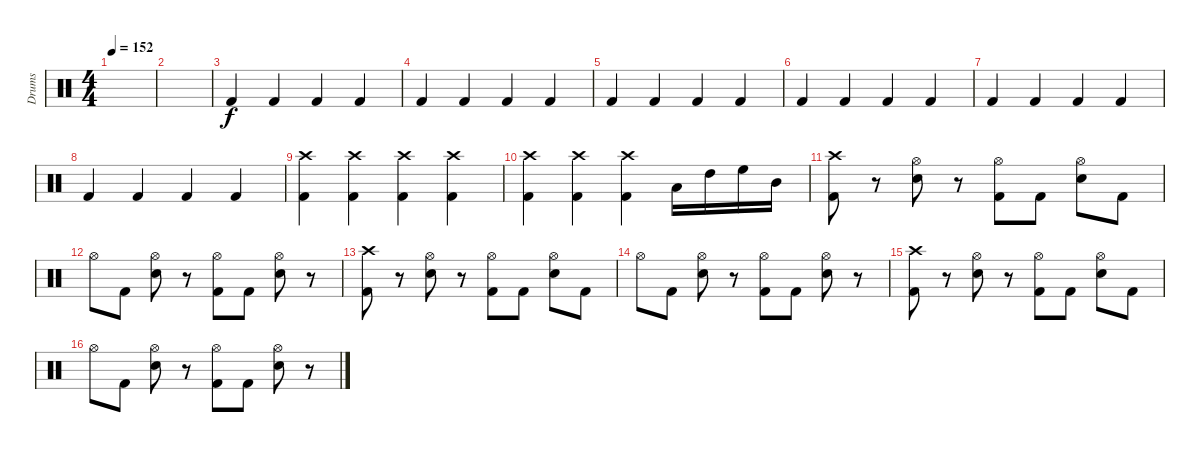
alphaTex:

\track ("Drums" "Drums") {instrument percussion}
\staff {score}
\articulation defaults
\ts (4 4)
\tempo 152
\clef neutral
\ks c
|
|
"Kick (hit) 2".4 "Kick (hit) 2".4 "Kick (hit) 2".4 "Kick (hit) 2".4 |
"Kick (hit) 2".4 "Kick (hit) 2".4 "Kick (hit) 2".4 "Kick (hit) 2".4 |
"Kick (hit) 2".4 "Kick (hit) 2".4 "Kick (hit) 2".4 "Kick (hit) 2".4 |
"Kick (hit) 2".4 "Kick (hit) 2".4 "Kick (hit) 2".4 "Kick (hit) 2".4 |
"Kick (hit) 2".4 "Kick (hit) 2".4 "Kick (hit) 2".4 "Kick (hit) 2".4 |
"Kick (hit) 2".4 "Kick (hit) 2".4 "Kick (hit) 2".4 "Kick (hit) 2".4 |
("Crash high (hit)" "Kick (hit) 2").4 ("Crash high (hit)" "Kick (hit) 2").4 ("Crash high (hit)" "Kick (hit) 2").4 ("Crash high (hit)" "Kick (hit) 2").4 |
("Crash high (hit)" "Kick (hit) 2").4 ("Crash high (hit)" "Kick (hit) 2").4 ("Crash high (hit)" "Kick (hit) 2").4 "Low Tom (hit)".16 "High Tom (hit)".16 "High Floor Tom (hit)".16 "Mid Tom (hit)".16 |
("Crash high (hit)" "Kick (hit) 2").8 r.8 ("Hi-Hat (open)" "Snare (hit) 2").8 r.8 ("Hi-Hat (open)" "Kick (hit) 2").8 "Kick (hit) 2".8 ("Hi-Hat (open)" "Snare (hit) 2").8 "Kick (hit) 2".8 |
"Hi-Hat (open)".8 "Kick (hit) 2".8 ("Hi-Hat (open)" "Snare (hit) 2").8 r.8 ("Hi-Hat (open)" "Kick (hit) 2").8 "Kick (hit) 2".8 ("Hi-Hat (open)" "Snare (hit) 2").8 r.8 |
("Crash high (hit)" "Kick (hit) 2").8 r.8 ("Hi-Hat (open)" "Snare (hit) 2").8 r.8 ("Hi-Hat (open)" "Kick (hit) 2").8 "Kick (hit) 2".8 ("Hi-Hat (open)" "Snare (hit) 2").8 "Kick (hit) 2".8 |
"Hi-Hat (open)".8 "Kick (hit) 2".8 ("Hi-Hat (open)" "Snare (hit) 2").8 r.8 ("Hi-Hat (open)" "Kick (hit) 2").8 "Kick (hit) 2".8 ("Hi-Hat (open)" "Snare (hit) 2").8 r.8 |
("Crash high (hit)" "Kick (hit) 2").8 r.8 ("Hi-Hat (open)" "Snare (hit) 2").8 r.8 ("Hi-Hat (open)" "Kick (hit) 2").8 "Kick (hit) 2".8 ("Hi-Hat (open)" "Snare (hit) 2").8 "Kick (hit) 2".8 |
"Hi-Hat (open)".8 "Kick (hit) 2".8 ("Hi-Hat (open)" "Snare (hit) 2").8 r.8 ("Hi-Hat (open)" "Kick (hit) 2").8 "Kick (hit) 2".8 ("Hi-Hat (open)" "Snare (hit) 2").8 r.8
